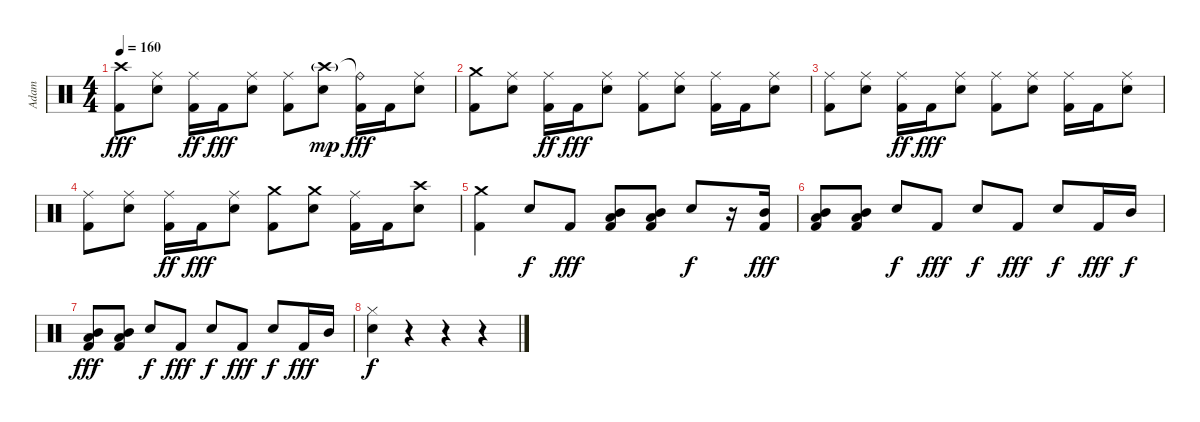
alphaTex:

\track ("Adam" "Adam") {instrument percussion}
\staff {score}
\articulation defaults
\ts (4 4)
\tempo 160
\clef neutral
\ks c
("Crash high (hit)" "Kick (hit) 2").8{dy fff} ("Ride (middle)" "Electric Snare (hit)").8 ("Ride (middle)" "Kick (hit) 2").16{dy ff} "Kick (hit) 2".16{dy fff} ("Ride (middle)" "Electric Snare (hit)").8 ("Ride (middle)" "Kick (hit) 2").8 ("Crash high (hit)"{g} "Electric Snare (hit)").8{dy mp} ("Ride (bell)"{t} "Kick (hit) 2").16{dy fff} "Kick (hit) 2".16 ("Ride (middle)" "Electric Snare (hit)").8 |
("Crash medium (hit)" "Kick (hit) 2").8 ("Ride (middle)" "Electric Snare (hit)").8 ("Ride (middle)" "Kick (hit) 2").16{dy ff} "Kick (hit) 2".16{dy fff} ("Ride (middle)" "Electric Snare (hit)").8 ("Ride (middle)" "Kick (hit) 2").8 ("Ride (middle)" "Electric Snare (hit)").8 ("Ride (middle)" "Kick (hit) 2").16 "Kick (hit) 2".16 ("Ride (middle)" "Electric Snare (hit)").8 |
("Ride (middle)" "Kick (hit) 2").8 ("Ride (middle)" "Electric Snare (hit)").8 ("Ride (middle)" "Kick (hit) 2").16{dy ff} "Kick (hit) 2".16{dy fff} ("Ride (middle)" "Electric Snare (hit)").8 ("Ride (middle)" "Kick (hit) 2").8 ("Ride (middle)" "Electric Snare (hit)").8 ("Ride (middle)" "Kick (hit) 2").16 "Kick (hit) 2".16 ("Ride (middle)" "Electric Snare (hit)").8 |
("Ride (middle)" "Kick (hit) 2").8 ("Ride (middle)" "Electric Snare (hit)").8 ("Ride (middle)" "Kick (hit) 2").16{dy ff} "Kick (hit) 2".16{dy fff} ("Ride (middle)" "Electric Snare (hit)").8 ("Crash medium (hit)" "Kick (hit) 2").8 ("Crash medium (hit)" "Electric Snare (hit)").8 ("Ride (middle)" "Kick (hit) 2").16 "Kick (hit) 2".16 ("Crash high (hit)" "Electric Snare (hit)").8 |
("Crash medium (hit)" "Kick (hit) 2").4 "Electric Snare (hit)".8{dy f} "Kick (hit) 2".8{dy fff} ("Mid Tom (hit)" "Low Tom (hit)" "Kick (hit) 2").8 ("Mid Tom (hit)" "Low Tom (hit)" "Kick (hit) 2").8 "Electric Snare (hit)".8{dy f} r.16 ("Mid Tom (hit)" "Kick (hit) 2").16{dy fff} |
("Mid Tom (hit)" "Low Tom (hit)" "Kick (hit) 2").8 ("Mid Tom (hit)" "Low Tom (hit)" "Kick (hit) 2").8 "Electric Snare (hit)".8{dy f} "Kick (hit) 2".8{dy fff} "Electric Snare (hit)".8{dy f} "Kick (hit) 2".8{dy fff} "Electric Snare (hit)".8{dy f} "Kick (hit) 2".16{dy fff} "Mid Tom (hit)".16{dy f} |
("Mid Tom (hit)" "Low Tom (hit)" "Kick (hit) 2").8{dy fff} ("Mid Tom (hit)" "Low Tom (hit)" "Kick (hit) 2").8 "Electric Snare (hit)".8{dy f} "Kick (hit) 2".8{dy fff} "Electric Snare (hit)".8{dy f} "Kick (hit) 2".8{dy fff} "Electric Snare (hit)".8{dy f} "Kick (hit) 2".16{dy fff} "Mid Tom (hit)".16 |
("Hi-Hat (closed)" "Electric Snare (hit)").4{dy f} r.4 r.4 r.4
